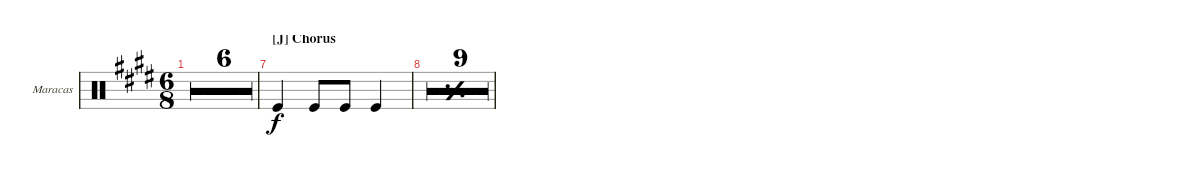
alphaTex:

\defaultSystemsLayout 4
\bracketExtendMode groupsimilarinstruments
\firstSystemTrackNameOrientation horizontal
\otherSystemsTrackNameOrientation horizontal
\track ("Maracas" "Maracas") {multiBarRest instrument percussion}
\staff {score}
\articulation defaults
\ts (6 8)
\tempo
165.176
\accidentals auto
\clef neutral
\ottava regular
\simile none
\ks e
r.2{d dy f} |
\ts (3 4)
r.2{d} |
\ts (6 8)
r.2{d} |
r.2{d} |
r.2{d} |
\ts (3 4)
r.2{d} |
\section ("J" "Chorus")
"Kick (hit)".4 "Kick (hit)".8 "Kick (hit)".8 "Kick (hit)".4 |
\simile simple
|
\simile firstofdouble
|
\simile secondofdouble
|
\simile firstofdouble
|
\simile secondofdouble
|
\simile firstofdouble
|
\simile secondofdouble
|
\simile firstofdouble
|
\simile secondofdouble
